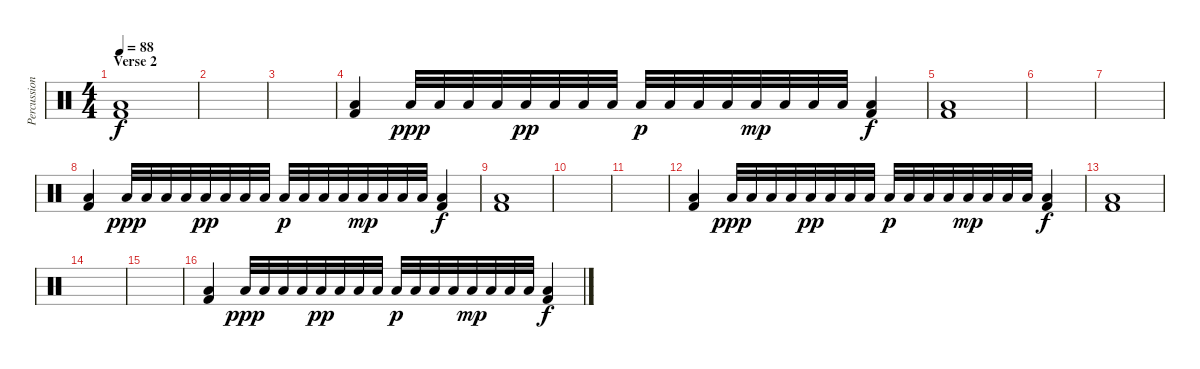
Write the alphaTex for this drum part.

\track ("Percussion" "Percussion") {instrument percussion}
\staff {score}
\articulation defaults
\ts (4 4)
\section ("" "Verse 2")
\tempo 88
\clef neutral
\ks c
("Low Floor Tom (hit)" "Kick (hit) 2").1{dy f} |
|
|
("Low Floor Tom (hit)" "Kick (hit) 2").4 "Low Floor Tom (hit)".32{dy ppp} "Low Floor Tom (hit)".32 "Low Floor Tom (hit)".32 "Low Floor Tom (hit)".32 "Low Floor Tom (hit)".32{dy pp} "Low Floor Tom (hit)".32 "Low Floor Tom (hit)".32 "Low Floor Tom (hit)".32 "Low Floor Tom (hit)".32{dy p} "Low Floor Tom (hit)".32 "Low Floor Tom (hit)".32 "Low Floor Tom (hit)".32 "Low Floor Tom (hit)".32{dy mp} "Low Floor Tom (hit)".32 "Low Floor Tom (hit)".32 "Low Floor Tom (hit)".32 ("Low Floor Tom (hit)" "Kick (hit) 2").4{dy f} |
("Low Floor Tom (hit)" "Kick (hit) 2").1 |
|
|
("Low Floor Tom (hit)" "Kick (hit) 2").4 "Low Floor Tom (hit)".32{dy ppp} "Low Floor Tom (hit)".32 "Low Floor Tom (hit)".32 "Low Floor Tom (hit)".32 "Low Floor Tom (hit)".32{dy pp} "Low Floor Tom (hit)".32 "Low Floor Tom (hit)".32 "Low Floor Tom (hit)".32 "Low Floor Tom (hit)".32{dy p} "Low Floor Tom (hit)".32 "Low Floor Tom (hit)".32 "Low Floor Tom (hit)".32 "Low Floor Tom (hit)".32{dy mp} "Low Floor Tom (hit)".32 "Low Floor Tom (hit)".32 "Low Floor Tom (hit)".32 ("Low Floor Tom (hit)" "Kick (hit) 2").4{dy f} |
("Low Floor Tom (hit)" "Kick (hit) 2").1 |
|
|
("Low Floor Tom (hit)" "Kick (hit) 2").4 "Low Floor Tom (hit)".32{dy ppp} "Low Floor Tom (hit)".32 "Low Floor Tom (hit)".32 "Low Floor Tom (hit)".32 "Low Floor Tom (hit)".32{dy pp} "Low Floor Tom (hit)".32 "Low Floor Tom (hit)".32 "Low Floor Tom (hit)".32 "Low Floor Tom (hit)".32{dy p} "Low Floor Tom (hit)".32 "Low Floor Tom (hit)".32 "Low Floor Tom (hit)".32 "Low Floor Tom (hit)".32{dy mp} "Low Floor Tom (hit)".32 "Low Floor Tom (hit)".32 "Low Floor Tom (hit)".32 ("Low Floor Tom (hit)" "Kick (hit) 2").4{dy f} |
("Low Floor Tom (hit)" "Kick (hit) 2").1 |
|
|
("Low Floor Tom (hit)" "Kick (hit) 2").4 "Low Floor Tom (hit)".32{dy ppp} "Low Floor Tom (hit)".32 "Low Floor Tom (hit)".32 "Low Floor Tom (hit)".32 "Low Floor Tom (hit)".32{dy pp} "Low Floor Tom (hit)".32 "Low Floor Tom (hit)".32 "Low Floor Tom (hit)".32 "Low Floor Tom (hit)".32{dy p} "Low Floor Tom (hit)".32 "Low Floor Tom (hit)".32 "Low Floor Tom (hit)".32 "Low Floor Tom (hit)".32{dy mp} "Low Floor Tom (hit)".32 "Low Floor Tom (hit)".32 "Low Floor Tom (hit)".32 ("Low Floor Tom (hit)" "Kick (hit) 2").4{dy f}
